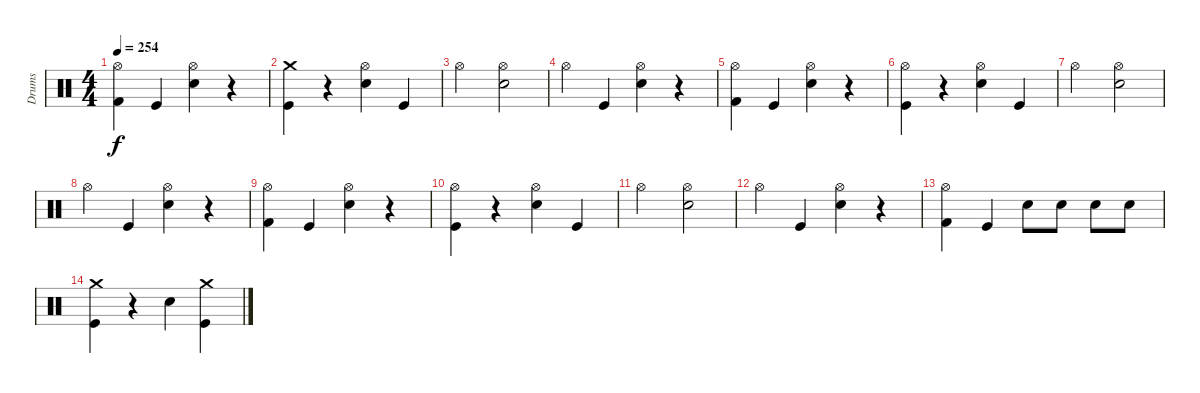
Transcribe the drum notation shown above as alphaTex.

\track ("Drums" "Drums") {instrument percussion}
\staff {score}
\articulation defaults
\ts (4 4)
\tempo 254
\clef neutral
\ks c
("Hi-Hat (open)" "Kick (hit) 2").4{dy f} "Kick (hit)".4 ("Hi-Hat (open)" "Electric Snare (hit)").4 r.4 |
("Crash medium (hit)" "Kick (hit)").4 r.4 ("Hi-Hat (open)" "Electric Snare (hit)").4 "Kick (hit)".4 |
"Hi-Hat (open)".2 ("Hi-Hat (open)" "Electric Snare (hit)").2 |
"Hi-Hat (open)".4 "Kick (hit)".4 ("Hi-Hat (open)" "Electric Snare (hit)").4 r.4 |
("Hi-Hat (open)" "Kick (hit) 2").4 "Kick (hit)".4 ("Hi-Hat (open)" "Electric Snare (hit)").4 r.4 |
("Hi-Hat (open)" "Kick (hit)").4 r.4 ("Hi-Hat (open)" "Electric Snare (hit)").4 "Kick (hit)".4 |
"Hi-Hat (open)".2 ("Hi-Hat (open)" "Electric Snare (hit)").2 |
"Hi-Hat (open)".4 "Kick (hit)".4 ("Hi-Hat (open)" "Electric Snare (hit)").4 r.4 |
("Hi-Hat (open)" "Kick (hit) 2").4 "Kick (hit)".4 ("Hi-Hat (open)" "Electric Snare (hit)").4 r.4 |
("Hi-Hat (open)" "Kick (hit)").4 r.4 ("Hi-Hat (open)" "Electric Snare (hit)").4 "Kick (hit)".4 |
"Hi-Hat (open)".2 ("Hi-Hat (open)" "Electric Snare (hit)").2 |
"Hi-Hat (open)".4 "Kick (hit)".4 ("Hi-Hat (open)" "Electric Snare (hit)").4 r.4 |
("Hi-Hat (open)" "Kick (hit) 2").4 "Kick (hit)".4 "Electric Snare (hit)".8 "Electric Snare (hit)".8 "Electric Snare (hit)".8 "Electric Snare (hit)".8 |
("Crash medium (hit)" "Kick (hit)").4 r.4 "Electric Snare (hit)".4 ("Crash medium (hit)" "Kick (hit)").4
